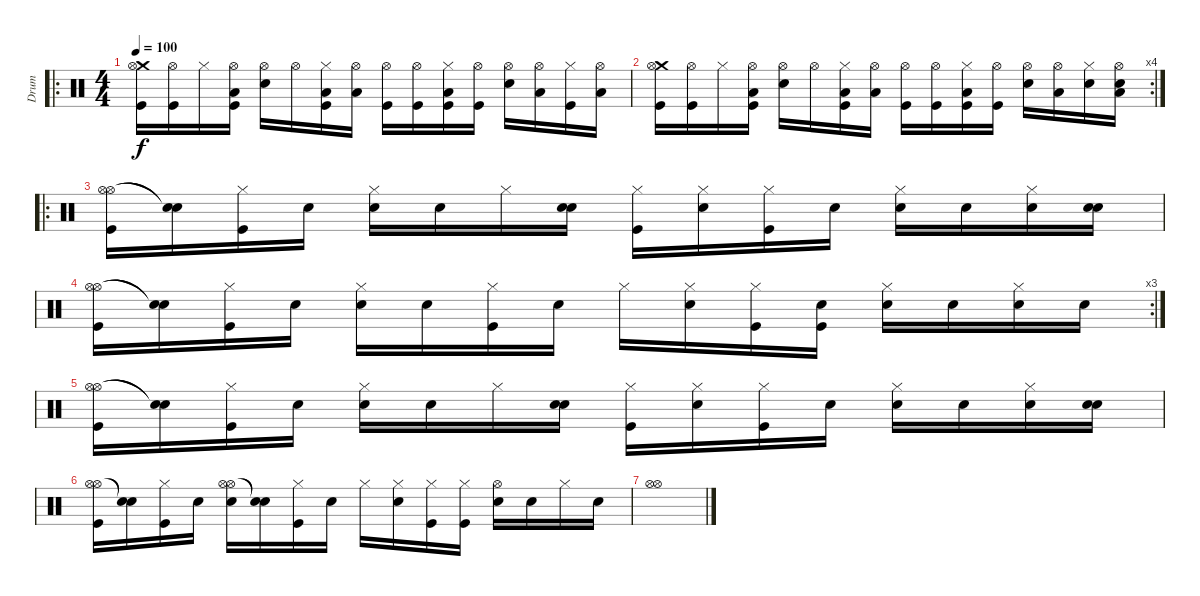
\track ("Drum" "Drum") {instrument percussion}
\staff {score}
\articulation defaults
\ro
\ts (4 4)
\tempo 100
\clef neutral
\ks c
("Crash medium (hit)" "Hi-Hat (open)" "Kick (hit)").16{dy f} ("Hi-Hat (open)" "Kick (hit)").16 "Hi-Hat (closed)".16 ("Hi-Hat (open)" "Kick (hit)" "Low Tom (hit)").16 ("Hi-Hat (open)" "Electric Snare (hit)").16 "Hi-Hat (open)".16 ("Hi-Hat (closed)" "Kick (hit)" "Low Floor Tom (hit)").16 ("Hi-Hat (open)" "Low Floor Tom (hit)").16 ("Hi-Hat (open)" "Kick (hit)").16 ("Hi-Hat (open)" "Kick (hit)").16 ("Hi-Hat (closed)" "Kick (hit)" "Low Tom (hit)").16 ("Hi-Hat (open)" "Kick (hit)").16 ("Hi-Hat (open)" "Electric Snare (hit)").16 ("Hi-Hat (open)" "Low Floor Tom (hit)").16 ("Hi-Hat (closed)" "Kick (hit)").16 ("Hi-Hat (open)" "Low Floor Tom (hit)").16 |
\rc 4
("Crash medium (hit)" "Hi-Hat (open)" "Kick (hit)").16 ("Hi-Hat (open)" "Kick (hit)").16 "Hi-Hat (closed)".16 ("Hi-Hat (open)" "Kick (hit)" "Low Tom (hit)").16 ("Hi-Hat (open)" "Electric Snare (hit)").16 "Hi-Hat (open)".16 ("Hi-Hat (closed)" "Kick (hit)" "Low Floor Tom (hit)").16 ("Hi-Hat (open)" "Low Floor Tom (hit)").16 ("Hi-Hat (open)" "Kick (hit)").16 ("Hi-Hat (open)" "Kick (hit)").16 ("Hi-Hat (closed)" "Kick (hit)" "Low Tom (hit)").16 ("Hi-Hat (open)" "Kick (hit)").16 ("Hi-Hat (open)" "Electric Snare (hit)").16 ("Hi-Hat (open)" "Low Floor Tom (hit)").16 ("Hi-Hat (closed)" "Electric Snare (hit)").16 ("Hi-Hat (open)" "Electric Snare (hit)" "Low Floor Tom (hit)").16 |
\ro
("Hi-Hat (open)" "Hi-Hat (open)" "Kick (hit)").16 ("Snare (hit)"{t} "Snare (hit)"{t}).16 ("Hi-Hat (closed)" "Kick (hit)").16 "Snare (hit)".16 ("Hi-Hat (closed)" "Electric Snare (hit)").16 "Snare (hit)".16 "Hi-Hat (closed)".16 ("Snare (hit)" "Electric Snare (hit)").16 ("Hi-Hat (closed)" "Kick (hit)").16 ("Hi-Hat (closed)" "Electric Snare (hit)").16 ("Hi-Hat (closed)" "Kick (hit)").16 "Snare (hit)".16 ("Hi-Hat (closed)" "Electric Snare (hit)").16 "Snare (hit)".16 ("Hi-Hat (closed)" "Electric Snare (hit)").16 ("Snare (hit)" "Electric Snare (hit)").16 |
\rc 3
("Hi-Hat (open)" "Hi-Hat (open)" "Kick (hit)").16 ("Snare (hit)"{t} "Snare (hit)"{t}).16 ("Hi-Hat (closed)" "Kick (hit)").16 "Snare (hit)".16 ("Hi-Hat (closed)" "Electric Snare (hit)").16 "Snare (hit)".16 ("Hi-Hat (closed)" "Kick (hit)").16 "Snare (hit)".16 "Hi-Hat (closed)".16 ("Hi-Hat (closed)" "Electric Snare (hit)").16 ("Hi-Hat (closed)" "Kick (hit)").16 ("Snare (hit)" "Kick (hit)").16 ("Hi-Hat (closed)" "Electric Snare (hit)").16 "Snare (hit)".16 ("Hi-Hat (closed)" "Electric Snare (hit)").16 "Snare (hit)".16 |
("Hi-Hat (open)" "Hi-Hat (open)" "Kick (hit)").16 ("Snare (hit)"{t} "Snare (hit)"{t}).16 ("Hi-Hat (closed)" "Kick (hit)").16 "Snare (hit)".16 ("Hi-Hat (closed)" "Electric Snare (hit)").16 "Snare (hit)".16 "Hi-Hat (closed)".16 ("Snare (hit)" "Electric Snare (hit)").16 ("Hi-Hat (closed)" "Kick (hit)").16 ("Hi-Hat (closed)" "Electric Snare (hit)").16 ("Hi-Hat (closed)" "Kick (hit)").16 "Snare (hit)".16 ("Hi-Hat (closed)" "Electric Snare (hit)").16 "Snare (hit)".16 ("Hi-Hat (closed)" "Electric Snare (hit)").16 ("Snare (hit)" "Electric Snare (hit)").16 |
("Hi-Hat (open)" "Hi-Hat (open)" "Kick (hit)").16 ("Snare (hit)"{t} "Snare (hit)"{t}).16 ("Hi-Hat (closed)" "Kick (hit)").16 "Snare (hit)".16 ("Hi-Hat (open)" "Hi-Hat (open)" "Electric Snare (hit)").16 ("Snare (hit)"{t} "Snare (hit)"{t}).16 ("Hi-Hat (closed)" "Kick (hit)").16 "Snare (hit)".16 "Hi-Hat (closed)".16 ("Hi-Hat (closed)" "Electric Snare (hit)").16 ("Hi-Hat (closed)" "Kick (hit)").16 ("Hi-Hat (closed)" "Kick (hit)").16 ("Hi-Hat (open)" "Electric Snare (hit)").16 "Snare (hit)".16 "Hi-Hat (closed)".16 "Snare (hit)".16 |
("Hi-Hat (open)" "Hi-Hat (open)").1
